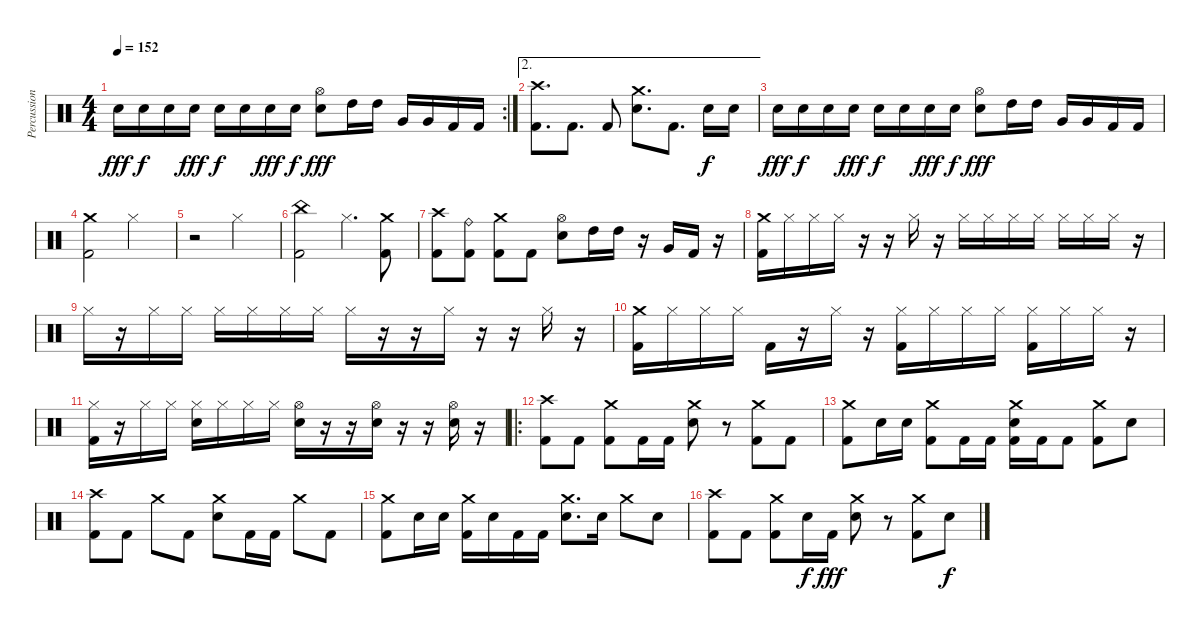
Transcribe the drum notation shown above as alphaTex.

\track ("Percussion" "Percussion") {instrument percussion}
\staff {score}
\articulation defaults
\rc 2
\ts (4 4)
\tempo 152
\clef neutral
\ks c "Electric Snare (hit)".16{dy fff} "Electric Snare (hit)".16{dy f} "Electric Snare (hit)".16 "Electric Snare (hit)".16{dy fff} "Electric Snare (hit)".16{dy f} "Electric Snare (hit)".16 "Electric Snare (hit)".16{dy fff} "Electric Snare (hit)".16{dy f}
("Electric Snare (hit)" "Hi-Hat (open)").8{dy fff} "High Tom (hit)".16 "High Tom (hit)".16 "Very Low Tom (hit)".16 "Very Low Tom (hit)".16 "Kick (hit) 2".16 "Kick (hit) 2".16 |
\ae 2
("Kick (hit) 2" "Crash high (hit)").8{d} "Kick (hit) 2".8{d} "Kick (hit) 2".8 ("Electric Snare (hit)" "Crash medium (hit)").8{d} "Kick (hit) 2".8{d} "Electric Snare (hit)".16{dy f} "Electric Snare (hit)".16 |
"Electric Snare (hit)".16{dy fff} "Electric Snare (hit)".16{dy f} "Electric Snare (hit)".16 "Electric Snare (hit)".16{dy fff} "Electric Snare (hit)".16{dy f} "Electric Snare (hit)".16 "Electric Snare (hit)".16{dy fff} "Electric Snare (hit)".16{dy f} ("Electric Snare (hit)" "Hi-Hat (open)").8{dy fff} "High Tom (hit)".16 "High Tom (hit)".16 "Very Low Tom (hit)".16 "Very Low Tom (hit)".16 "Kick (hit) 2".16 "Kick (hit) 2".16 |
("Crash medium (hit)" "Kick (hit) 2").2 "Hi-Hat (closed)".2 |
r.2 "Hi-Hat (closed)".2 |
("China (hit)" "Kick (hit) 2").2 "Hi-Hat (closed)".4{d} ("Crash medium (hit)" "Kick (hit) 2").8 |
("Crash high (hit)" "Kick (hit) 2").8 ("Kick (hit) 2" "Ride (bell)").8 ("Kick (hit) 2" "Crash medium (hit)").8 "Kick (hit) 2".8 ("Electric Snare (hit)" "Hi-Hat (open)").8 "High Tom (hit)".16 "High Tom (hit)".16 r.16 "Very Low Tom (hit)".16 "Kick (hit) 2".16 r.16 |
("Crash medium (hit)" "Kick (hit) 2").16 "Hi-Hat (closed)".16 "Hi-Hat (closed)".16 "Hi-Hat (closed)".16 r.16 r.16 "Hi-Hat (closed)".16 r.16 "Hi-Hat (closed)".16 "Hi-Hat (closed)".16 "Hi-Hat (closed)".16 "Hi-Hat (closed)".16 "Hi-Hat (closed)".16 "Hi-Hat (closed)".16 "Hi-Hat (closed)".16 r.16 |
"Hi-Hat (closed)".16 r.16 "Hi-Hat (closed)".16 "Hi-Hat (closed)".16 "Hi-Hat (closed)".16 "Hi-Hat (closed)".16 "Hi-Hat (closed)".16 "Hi-Hat (closed)".16 "Hi-Hat (closed)".16 r.16 r.16 "Hi-Hat (closed)".16 r.16 r.16 "Hi-Hat (closed)".16 r.16 |
("Crash medium (hit)" "Kick (hit) 2").16 "Hi-Hat (closed)".16 "Hi-Hat (closed)".16 "Hi-Hat (closed)".16 "Kick (hit) 2".16 r.16 "Hi-Hat (closed)".16 r.16 ("Hi-Hat (closed)" "Kick (hit) 2").16 "Hi-Hat (closed)".16 "Hi-Hat (closed)".16 "Hi-Hat (closed)".16 ("Hi-Hat (closed)" "Kick (hit) 2").16 "Hi-Hat (closed)".16 "Hi-Hat (closed)".16 r.16 |
("Hi-Hat (closed)" "Kick (hit) 2").16 r.16 "Hi-Hat (closed)".16 "Hi-Hat (closed)".16 ("Hi-Hat (closed)" "Electric Snare (hit)").16 "Hi-Hat (closed)".16 "Hi-Hat (closed)".16 "Hi-Hat (closed)".16 ("Electric Snare (hit)" "Hi-Hat (open)").16 r.16 r.16 ("Hi-Hat (open)" "Electric Snare (hit)").16 r.16 r.16 ("Electric Snare (hit)" "Hi-Hat (open)").16 r.16 |
\ro
("Kick (hit) 2" "Crash high (hit)").8 "Kick (hit) 2".8 ("Crash medium (hit)" "Kick (hit) 2").8 "Kick (hit) 2".16 "Kick (hit) 2".16 ("Electric Snare (hit)" "Crash medium (hit)").8 r.8 ("Crash medium (hit)" "Kick (hit) 2").8 "Kick (hit) 2".8 |
("Crash medium (hit)" "Kick (hit) 2").8 "Electric Snare (hit)".16 "Electric Snare (hit)".16 ("Crash medium (hit)" "Kick (hit) 2").8 "Kick (hit) 2".16 "Kick (hit) 2".16 ("Electric Snare (hit)" "Crash medium (hit)" "Kick (hit) 2").16 "Kick (hit) 2".16 "Kick (hit) 2".8 ("Kick (hit) 2" "Crash medium (hit)").8 "Electric Snare (hit)".8 |
("Kick (hit) 2" "Crash high (hit)").8 "Kick (hit) 2".8 "Crash medium (hit)".8 "Kick (hit) 2".8 ("Electric Snare (hit)" "Crash medium (hit)").8 "Kick (hit) 2".16 "Kick (hit) 2".16 "Crash medium (hit)".8 "Kick (hit) 2".8 |
("Crash medium (hit)" "Kick (hit) 2").8 "Electric Snare (hit)".16 "Electric Snare (hit)".16 ("Crash medium (hit)" "Kick (hit) 2").16 "Electric Snare (hit)".16 "Kick (hit) 2".16 "Kick (hit) 2".16 ("Electric Snare (hit)" "Crash medium (hit)").8{d} "Electric Snare (hit)".16 "Crash medium (hit)".8 "Electric Snare (hit)".8 |
("Kick (hit) 2" "Crash high (hit)").8 "Kick (hit) 2".8 ("Crash medium (hit)" "Kick (hit) 2").8 "Electric Snare (hit)".16{dy f} "Kick (hit) 2".16{dy fff} ("Electric Snare (hit)" "Crash medium (hit)").8 r.8 ("Crash medium (hit)" "Kick (hit) 2").8 "Electric Snare (hit)".8{dy f}
